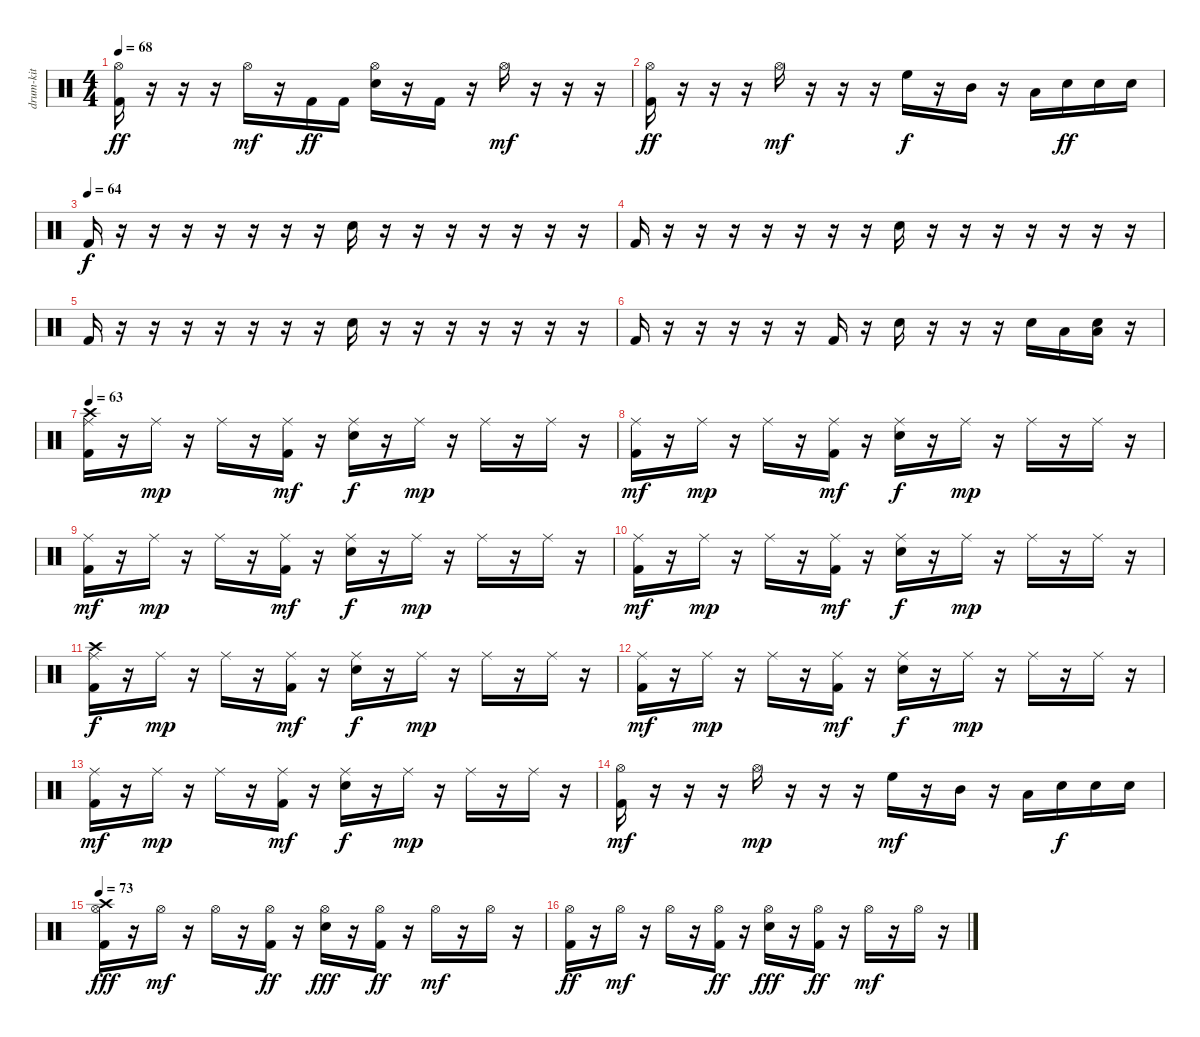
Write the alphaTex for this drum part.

\track ("drum-kit" "drum-kit") {instrument percussion}
\staff {score}
\articulation defaults
\ts (4 4)
\tempo 68
\clef neutral
\ks c
("Hi-Hat (open)" "Kick (hit) 2").16{dy ff} r.16 r.16 r.16 "Hi-Hat (open)".16{dy mf} r.16 "Kick (hit) 2".16{dy ff} "Kick (hit) 2".16 ("Hi-Hat (open)" "Snare (hit) 2").16 r.16 "Kick (hit) 2".16 r.16 "Hi-Hat (open)".16{dy mf} r.16 r.16 r.16 |
("Hi-Hat (open)" "Kick (hit) 2").16{dy ff} r.16 r.16 r.16 "Hi-Hat (open)".16{dy mf} r.16 r.16 r.16 "High Floor Tom (hit)".16{dy f} r.16 "Mid Tom (hit)".16 r.16 "Low Tom (hit)".16 "Snare (hit) 2".16{dy ff} "Snare (hit) 2".16 "Snare (hit) 2".16 |
\tempo (64)
"Kick (hit) 2".16{dy f} r.16 r.16 r.16 r.16 r.16 r.16 r.16 "Snare (hit) 2".16 r.16 r.16 r.16 r.16 r.16 r.16 r.16 |
"Kick (hit) 2".16 r.16 r.16 r.16 r.16 r.16 r.16 r.16 "Snare (hit) 2".16 r.16 r.16 r.16 r.16 r.16 r.16 r.16 |
"Kick (hit) 2".16 r.16 r.16 r.16 r.16 r.16 r.16 r.16 "Snare (hit) 2".16 r.16 r.16 r.16 r.16 r.16 r.16 r.16 |
"Kick (hit) 2".16 r.16 r.16 r.16 r.16 r.16 "Kick (hit) 2".16 r.16 "Snare (hit) 2".16 r.16 r.16 r.16 "Snare (hit) 2".16 "Low Tom (hit)".16 ("Low Tom (hit)" "Snare (hit) 2").16 r.16 |
\tempo 63
("Ride (middle)" "Crash high (hit)" "Kick (hit) 2").16 r.16 "Ride (middle)".16{dy mp} r.16 "Ride (middle)".16 r.16 ("Ride (middle)" "Kick (hit) 2").16{dy mf} r.16 ("Ride (middle)" "Snare (hit) 2").16{dy f} r.16 "Ride (middle)".16{dy mp} r.16 "Ride (middle)".16 r.16 "Ride (middle)".16 r.16 |
("Ride (middle)" "Kick (hit) 2").16{dy mf} r.16 "Ride (middle)".16{dy mp} r.16 "Ride (middle)".16 r.16 ("Ride (middle)" "Kick (hit) 2").16{dy mf} r.16 ("Ride (middle)" "Snare (hit) 2").16{dy f} r.16 "Ride (middle)".16{dy mp} r.16 "Ride (middle)".16 r.16 "Ride (middle)".16 r.16 |
("Ride (middle)" "Kick (hit) 2").16{dy mf} r.16 "Ride (middle)".16{dy mp} r.16 "Ride (middle)".16 r.16 ("Ride (middle)" "Kick (hit) 2").16{dy mf} r.16 ("Ride (middle)" "Snare (hit) 2").16{dy f} r.16 "Ride (middle)".16{dy mp} r.16 "Ride (middle)".16 r.16 "Ride (middle)".16 r.16 |
("Ride (middle)" "Kick (hit) 2").16{dy mf} r.16 "Ride (middle)".16{dy mp} r.16 "Ride (middle)".16 r.16 ("Ride (middle)" "Kick (hit) 2").16{dy mf} r.16 ("Ride (middle)" "Snare (hit) 2").16{dy f} r.16 "Ride (middle)".16{dy mp} r.16 "Ride (middle)".16 r.16 "Ride (middle)".16 r.16 |
("Ride (middle)" "Crash high (hit)" "Kick (hit) 2").16{dy f} r.16 "Ride (middle)".16{dy mp} r.16 "Ride (middle)".16 r.16 ("Ride (middle)" "Kick (hit) 2").16{dy mf} r.16 ("Ride (middle)" "Snare (hit) 2").16{dy f} r.16 "Ride (middle)".16{dy mp} r.16 "Ride (middle)".16 r.16 "Ride (middle)".16 r.16 |
("Ride (middle)" "Kick (hit) 2").16{dy mf} r.16 "Ride (middle)".16{dy mp} r.16 "Ride (middle)".16 r.16 ("Ride (middle)" "Kick (hit) 2").16{dy mf} r.16 ("Ride (middle)" "Snare (hit) 2").16{dy f} r.16 "Ride (middle)".16{dy mp} r.16 "Ride (middle)".16 r.16 "Ride (middle)".16 r.16 |
("Ride (middle)" "Kick (hit) 2").16{dy mf} r.16 "Ride (middle)".16{dy mp} r.16 "Ride (middle)".16 r.16 ("Ride (middle)" "Kick (hit) 2").16{dy mf} r.16 ("Ride (middle)" "Snare (hit) 2").16{dy f} r.16 "Ride (middle)".16{dy mp} r.16 "Ride (middle)".16 r.16 "Ride (middle)".16 r.16 |
("Hi-Hat (open)" "Kick (hit) 2").16{dy mf} r.16 r.16 r.16 "Hi-Hat (open)".16{dy mp} r.16 r.16 r.16 "High Floor Tom (hit)".16{dy mf} r.16 "Mid Tom (hit)".16 r.16 "Low Tom (hit)".16 "Snare (hit) 2".16{dy f} "Snare (hit) 2".16 "Snare (hit) 2".16 |
\tempo 73
("Crash high (hit)" "Hi-Hat (open)" "Kick (hit) 2").16{dy fff} r.16 "Hi-Hat (open)".16{dy mf} r.16 "Hi-Hat (open)".16 r.16 ("Hi-Hat (open)" "Kick (hit) 2").16{dy ff} r.16 ("Hi-Hat (open)" "Snare (hit) 2").16{dy fff} r.16 ("Hi-Hat (open)" "Kick (hit) 2").16{dy ff} r.16 "Hi-Hat (open)".16{dy mf} r.16 "Hi-Hat (open)".16 r.16 |
("Hi-Hat (open)" "Kick (hit) 2").16{dy ff} r.16 "Hi-Hat (open)".16{dy mf} r.16 "Hi-Hat (open)".16 r.16 ("Hi-Hat (open)" "Kick (hit) 2").16{dy ff} r.16 ("Hi-Hat (open)" "Snare (hit) 2").16{dy fff} r.16 ("Hi-Hat (open)" "Kick (hit) 2").16{dy ff} r.16 "Hi-Hat (open)".16{dy mf} r.16 "Hi-Hat (open)".16 r.16
